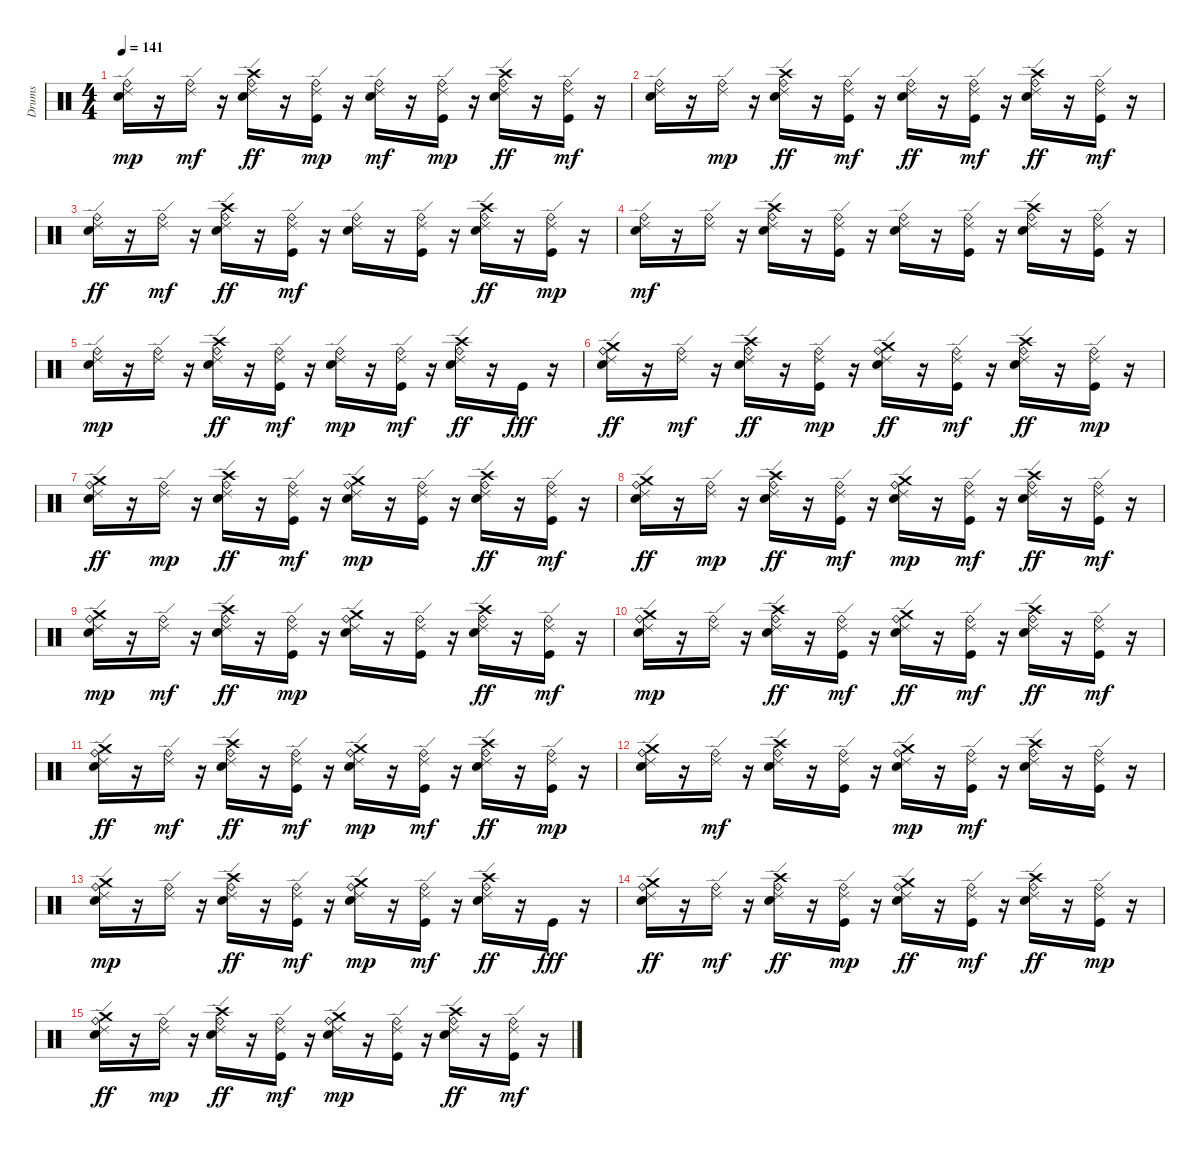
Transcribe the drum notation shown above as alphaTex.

\track ("Drums" "Drums") {instrument percussion}
\staff {score}
\articulation defaults
\ts (4 4)
\tempo 141
\clef neutral
\ks c
("Electric Snare (hit)" "Ride (bell)" "Ride (edge) 2").16{dy mp} r.16 ("Ride (bell)" "Ride (edge) 2").16{dy mf} r.16 ("Electric Snare (hit)" "Crash high (hit)" "Ride (bell)" "Ride (edge) 2").16{dy ff} r.16 ("Kick (hit)" "Ride (bell)" "Ride (edge) 2").16{dy mp} r.16 ("Electric Snare (hit)" "Ride (bell)" "Ride (edge) 2").16{dy mf} r.16 ("Kick (hit)" "Ride (bell)" "Ride (edge) 2").16{dy mp} r.16 ("Electric Snare (hit)" "Crash high (hit)" "Ride (bell)" "Ride (edge) 2").16{dy ff} r.16 ("Kick (hit)" "Ride (bell)" "Ride (edge) 2").16{dy mf} r.16 |
("Electric Snare (hit)" "Ride (bell)" "Ride (edge) 2").16 r.16 ("Ride (bell)" "Ride (edge) 2").16{dy mp} r.16 ("Electric Snare (hit)" "Crash high (hit)" "Ride (bell)" "Ride (edge) 2").16{dy ff} r.16 ("Kick (hit)" "Ride (bell)" "Ride (edge) 2").16{dy mf} r.16 ("Electric Snare (hit)" "Ride (bell)" "Ride (edge) 2").16{dy ff} r.16 ("Kick (hit)" "Ride (bell)" "Ride (edge) 2").16{dy mf} r.16 ("Electric Snare (hit)" "Crash high (hit)" "Ride (bell)" "Ride (edge) 2").16{dy ff} r.16 ("Kick (hit)" "Ride (bell)" "Ride (edge) 2").16{dy mf} r.16 |
("Electric Snare (hit)" "Ride (bell)" "Ride (edge) 2").16{dy ff} r.16 ("Ride (bell)" "Ride (edge) 2").16{dy mf} r.16 ("Electric Snare (hit)" "Crash high (hit)" "Ride (bell)" "Ride (edge) 2").16{dy ff} r.16 ("Kick (hit)" "Ride (bell)" "Ride (edge) 2").16{dy mf} r.16 ("Electric Snare (hit)" "Ride (bell)" "Ride (edge) 2").16 r.16 ("Kick (hit)" "Ride (bell)" "Ride (edge) 2").16 r.16 ("Electric Snare (hit)" "Crash high (hit)" "Ride (bell)" "Ride (edge) 2").16{dy ff} r.16 ("Kick (hit)" "Ride (bell)" "Ride (edge) 2").16{dy mp} r.16 |
("Electric Snare (hit)" "Ride (bell)" "Ride (edge) 2").16{dy mf} r.16 ("Ride (bell)" "Ride (edge) 2").16 r.16 ("Electric Snare (hit)" "Crash high (hit)" "Ride (bell)" "Ride (edge) 2").16 r.16 ("Kick (hit)" "Ride (bell)" "Ride (edge) 2").16 r.16 ("Electric Snare (hit)" "Ride (bell)" "Ride (edge) 2").16 r.16 ("Kick (hit)" "Ride (bell)" "Ride (edge) 2").16 r.16 ("Electric Snare (hit)" "Crash high (hit)" "Ride (bell)" "Ride (edge) 2").16 r.16 ("Kick (hit)" "Ride (bell)" "Ride (edge) 2").16 r.16 |
("Electric Snare (hit)" "Ride (bell)" "Ride (edge) 2").16{dy mp} r.16 ("Ride (bell)" "Ride (edge) 2").16 r.16 ("Electric Snare (hit)" "Crash high (hit)" "Ride (bell)" "Ride (edge) 2").16{dy ff} r.16 ("Kick (hit)" "Ride (bell)" "Ride (edge) 2").16{dy mf} r.16 ("Electric Snare (hit)" "Ride (bell)" "Ride (edge) 2").16{dy mp} r.16 ("Kick (hit)" "Ride (bell)" "Ride (edge) 2").16{dy mf} r.16 ("Electric Snare (hit)" "Crash high (hit)" "Ride (bell)" "Ride (edge) 2").16{dy ff} r.16 "Kick (hit)".16{dy fff} r.16 |
("Electric Snare (hit)" "Ride (bell)" "Crash medium (hit)" "Ride (edge) 2").16{dy ff} r.16 ("Ride (bell)" "Ride (edge) 2").16{dy mf} r.16 ("Electric Snare (hit)" "Crash high (hit)" "Ride (bell)" "Ride (edge) 2").16{dy ff} r.16 ("Kick (hit)" "Ride (bell)" "Ride (edge) 2").16{dy mp} r.16 ("Electric Snare (hit)" "Ride (bell)" "Crash medium (hit)" "Ride (edge) 2").16{dy ff} r.16 ("Kick (hit)" "Ride (bell)" "Ride (edge) 2").16{dy mf} r.16 ("Electric Snare (hit)" "Crash high (hit)" "Ride (bell)" "Ride (edge) 2").16{dy ff} r.16 ("Kick (hit)" "Ride (bell)" "Ride (edge) 2").16{dy mp} r.16 |
("Electric Snare (hit)" "Ride (bell)" "Crash medium (hit)" "Ride (edge) 2").16{dy ff} r.16 ("Ride (bell)" "Ride (edge) 2").16{dy mp} r.16 ("Electric Snare (hit)" "Crash high (hit)" "Ride (bell)" "Ride (edge) 2").16{dy ff} r.16 ("Kick (hit)" "Ride (bell)" "Ride (edge) 2").16{dy mf} r.16 ("Electric Snare (hit)" "Ride (bell)" "Crash medium (hit)" "Ride (edge) 2").16{dy mp} r.16 ("Kick (hit)" "Ride (bell)" "Ride (edge) 2").16 r.16 ("Electric Snare (hit)" "Crash high (hit)" "Ride (bell)" "Ride (edge) 2").16{dy ff} r.16 ("Kick (hit)" "Ride (bell)" "Ride (edge) 2").16{dy mf} r.16 |
("Electric Snare (hit)" "Ride (bell)" "Crash medium (hit)" "Ride (edge) 2").16{dy ff} r.16 ("Ride (bell)" "Ride (edge) 2").16{dy mp} r.16 ("Electric Snare (hit)" "Crash high (hit)" "Ride (bell)" "Ride (edge) 2").16{dy ff} r.16 ("Kick (hit)" "Ride (bell)" "Ride (edge) 2").16{dy mf} r.16 ("Electric Snare (hit)" "Ride (bell)" "Crash medium (hit)" "Ride (edge) 2").16{dy mp} r.16 ("Kick (hit)" "Ride (bell)" "Ride (edge) 2").16{dy mf} r.16 ("Electric Snare (hit)" "Crash high (hit)" "Ride (bell)" "Ride (edge) 2").16{dy ff} r.16 ("Kick (hit)" "Ride (bell)" "Ride (edge) 2").16{dy mf} r.16 |
("Electric Snare (hit)" "Ride (bell)" "Crash medium (hit)" "Ride (edge) 2").16{dy mp} r.16 ("Ride (bell)" "Ride (edge) 2").16{dy mf} r.16 ("Electric Snare (hit)" "Crash high (hit)" "Ride (bell)" "Ride (edge) 2").16{dy ff} r.16 ("Kick (hit)" "Ride (bell)" "Ride (edge) 2").16{dy mp} r.16 ("Electric Snare (hit)" "Ride (bell)" "Crash medium (hit)" "Ride (edge) 2").16 r.16 ("Kick (hit)" "Ride (bell)" "Ride (edge) 2").16 r.16 ("Electric Snare (hit)" "Crash high (hit)" "Ride (bell)" "Ride (edge) 2").16{dy ff} r.16 ("Kick (hit)" "Ride (bell)" "Ride (edge) 2").16{dy mf} r.16 |
("Electric Snare (hit)" "Ride (bell)" "Crash medium (hit)" "Ride (edge) 2").16{dy mp} r.16 ("Ride (bell)" "Ride (edge) 2").16 r.16 ("Electric Snare (hit)" "Crash high (hit)" "Ride (bell)" "Ride (edge) 2").16{dy ff} r.16 ("Kick (hit)" "Ride (bell)" "Ride (edge) 2").16{dy mf} r.16 ("Electric Snare (hit)" "Ride (bell)" "Crash medium (hit)" "Ride (edge) 2").16{dy ff} r.16 ("Kick (hit)" "Ride (bell)" "Ride (edge) 2").16{dy mf} r.16 ("Electric Snare (hit)" "Crash high (hit)" "Ride (bell)" "Ride (edge) 2").16{dy ff} r.16 ("Kick (hit)" "Ride (bell)" "Ride (edge) 2").16{dy mf} r.16 |
("Electric Snare (hit)" "Ride (bell)" "Crash medium (hit)" "Ride (edge) 2").16{dy ff} r.16 ("Ride (bell)" "Ride (edge) 2").16{dy mf} r.16 ("Electric Snare (hit)" "Crash high (hit)" "Ride (bell)" "Ride (edge) 2").16{dy ff} r.16 ("Kick (hit)" "Ride (bell)" "Ride (edge) 2").16{dy mf} r.16 ("Electric Snare (hit)" "Ride (bell)" "Crash medium (hit)" "Ride (edge) 2").16{dy mp} r.16 ("Kick (hit)" "Ride (bell)" "Ride (edge) 2").16{dy mf} r.16 ("Electric Snare (hit)" "Crash high (hit)" "Ride (bell)" "Ride (edge) 2").16{dy ff} r.16 ("Kick (hit)" "Ride (bell)" "Ride (edge) 2").16{dy mp} r.16 |
("Electric Snare (hit)" "Ride (bell)" "Crash medium (hit)" "Ride (edge) 2").16 r.16 ("Ride (bell)" "Ride (edge) 2").16{dy mf} r.16 ("Electric Snare (hit)" "Crash high (hit)" "Ride (bell)" "Ride (edge) 2").16 r.16 ("Kick (hit)" "Ride (bell)" "Ride (edge) 2").16 r.16 ("Electric Snare (hit)" "Ride (bell)" "Crash medium (hit)" "Ride (edge) 2").16{dy mp} r.16 ("Kick (hit)" "Ride (bell)" "Ride (edge) 2").16{dy mf} r.16 ("Electric Snare (hit)" "Crash high (hit)" "Ride (bell)" "Ride (edge) 2").16 r.16 ("Kick (hit)" "Ride (bell)" "Ride (edge) 2").16 r.16 |
("Electric Snare (hit)" "Ride (bell)" "Crash medium (hit)" "Ride (edge) 2").16{dy mp} r.16 ("Ride (bell)" "Ride (edge) 2").16 r.16 ("Electric Snare (hit)" "Crash high (hit)" "Ride (bell)" "Ride (edge) 2").16{dy ff} r.16 ("Kick (hit)" "Ride (bell)" "Ride (edge) 2").16{dy mf} r.16 ("Electric Snare (hit)" "Ride (bell)" "Crash medium (hit)" "Ride (edge) 2").16{dy mp} r.16 ("Kick (hit)" "Ride (bell)" "Ride (edge) 2").16{dy mf} r.16 ("Electric Snare (hit)" "Crash high (hit)" "Ride (bell)" "Ride (edge) 2").16{dy ff} r.16 "Kick (hit)".16{dy fff} r.16 |
("Electric Snare (hit)" "Ride (bell)" "Crash medium (hit)" "Ride (edge) 2").16{dy ff} r.16 ("Ride (bell)" "Ride (edge) 2").16{dy mf} r.16 ("Electric Snare (hit)" "Crash high (hit)" "Ride (bell)" "Ride (edge) 2").16{dy ff} r.16 ("Kick (hit)" "Ride (bell)" "Ride (edge) 2").16{dy mp} r.16 ("Electric Snare (hit)" "Ride (bell)" "Crash medium (hit)" "Ride (edge) 2").16{dy ff} r.16 ("Kick (hit)" "Ride (bell)" "Ride (edge) 2").16{dy mf} r.16 ("Electric Snare (hit)" "Crash high (hit)" "Ride (bell)" "Ride (edge) 2").16{dy ff} r.16 ("Kick (hit)" "Ride (bell)" "Ride (edge) 2").16{dy mp} r.16 |
("Electric Snare (hit)" "Ride (bell)" "Crash medium (hit)" "Ride (edge) 2").16{dy ff} r.16 ("Ride (bell)" "Ride (edge) 2").16{dy mp} r.16 ("Electric Snare (hit)" "Crash high (hit)" "Ride (bell)" "Ride (edge) 2").16{dy ff} r.16 ("Kick (hit)" "Ride (bell)" "Ride (edge) 2").16{dy mf} r.16 ("Electric Snare (hit)" "Ride (bell)" "Crash medium (hit)" "Ride (edge) 2").16{dy mp} r.16 ("Kick (hit)" "Ride (bell)" "Ride (edge) 2").16 r.16 ("Electric Snare (hit)" "Crash high (hit)" "Ride (bell)" "Ride (edge) 2").16{dy ff} r.16 ("Kick (hit)" "Ride (bell)" "Ride (edge) 2").16{dy mf} r.16
